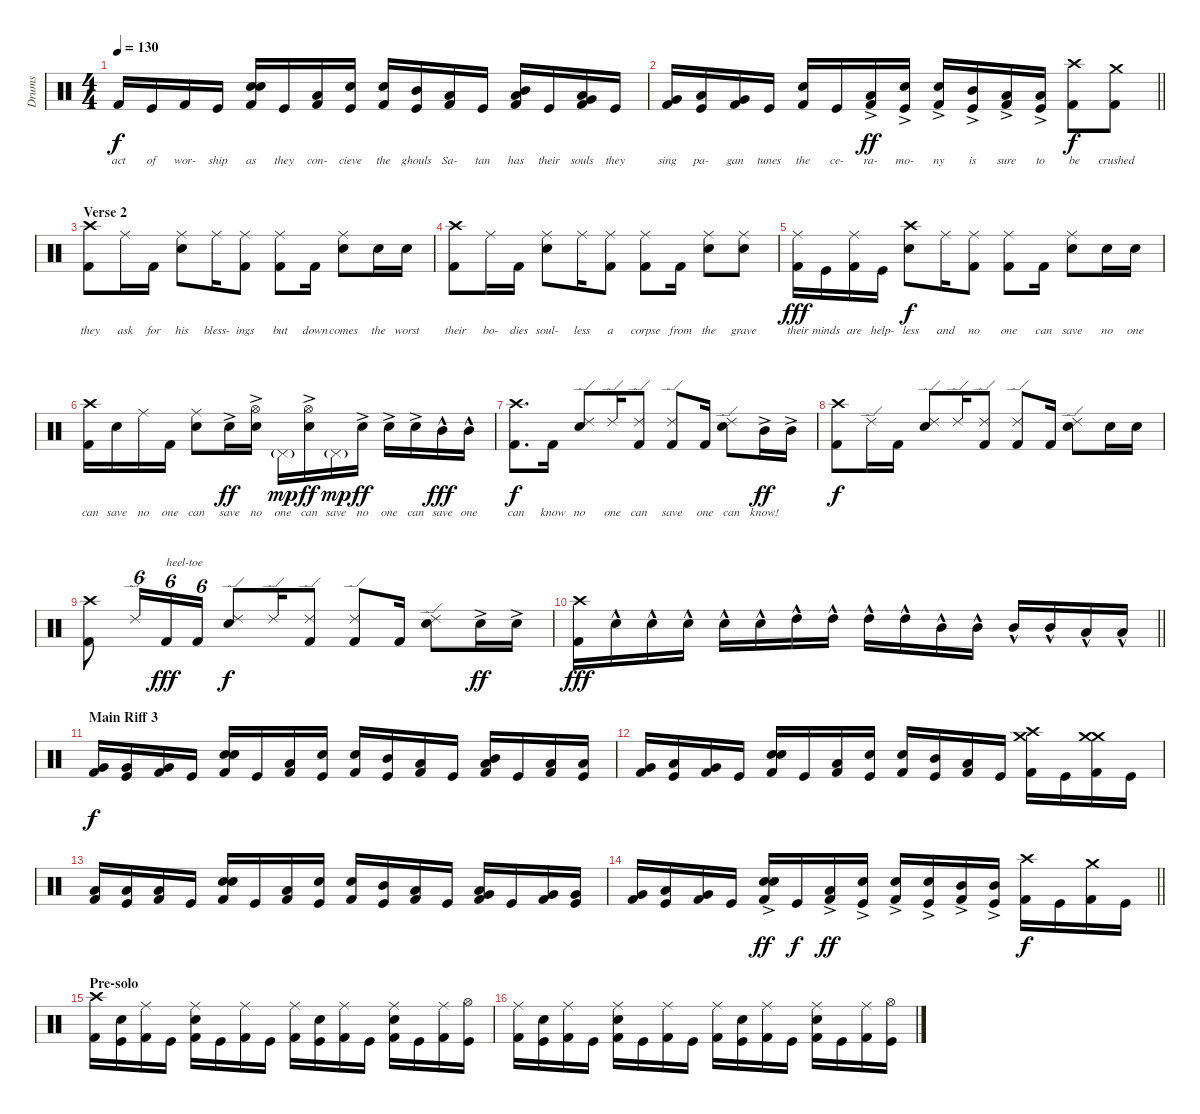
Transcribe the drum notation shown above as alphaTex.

\track ("Drums" "Drums") {instrument percussion}
\staff {score}
\articulation defaults
\ts (4 4)
\tempo 130
\clef neutral
\ks c "Kick (hit) 2".16{lyrics (0 "act") lyrics (1 "") lyrics (2 "") lyrics (3 "") lyrics (4 "") dy f} "Kick (hit)".16{lyrics (0 "of") lyrics (1 "") lyrics (2 "") lyrics (3 "") lyrics (4 "")} "Kick (hit) 2".16{lyrics (0 "wor-") lyrics (1 "") lyrics (2 "") lyrics (3 "") lyrics (4 "")} "Kick (hit)".16{lyrics (0 "ship") lyrics (1 "") lyrics (2 "") lyrics (3 "") lyrics (4 "")}
("Snare (hit) 2" "Snare (hit) 2" "Kick (hit) 2").16{lyrics (0 "as") lyrics (1 "") lyrics (2 "") lyrics (3 "") lyrics (4 "")} "Kick (hit)".16{lyrics (0 "they") lyrics (1 "") lyrics (2 "") lyrics (3 "") lyrics (4 "")} ("Low Tom (hit)" "Kick (hit) 2").16{lyrics (0 "con-") lyrics (1 "") lyrics (2 "") lyrics (3 "") lyrics (4 "")} ("Snare (hit) 2" "Kick (hit)").16{lyrics (0 "cieve") lyrics (1 "") lyrics (2 "") lyrics (3 "") lyrics (4 "")} ("Snare (hit) 2" "Kick (hit) 2").16{lyrics (0 "the") lyrics (1 "") lyrics (2 "") lyrics (3 "") lyrics (4 "")} ("Mid Tom (hit)" "Kick (hit)").16{lyrics (0 "ghouls") lyrics (1 "") lyrics (2 "") lyrics (3 "") lyrics (4 "")} ("Low Tom (hit)" "Kick (hit) 2").16{lyrics (0 "Sa-") lyrics (1 "") lyrics (2 "") lyrics (3 "") lyrics (4 "")} "Kick (hit)".16{lyrics (0 "tan") lyrics (1 "") lyrics (2 "") lyrics (3 "") lyrics (4 "")} ("Mid Tom (hit)" "Low Tom (hit)" "Kick (hit) 2").16{lyrics (0 "has") lyrics (1 "") lyrics (2 "") lyrics (3 "") lyrics (4 "")} "Kick (hit)".16{lyrics (0 "their") lyrics (1 "") lyrics (2 "") lyrics (3 "") lyrics (4 "")} ("Low Tom (hit)" "Very Low Tom (hit)" "Kick (hit) 2").16{lyrics (0 "souls") lyrics (1 "") lyrics (2 "") lyrics (3 "") lyrics (4 "")} "Kick (hit)".16{lyrics (0 "they") lyrics (1 "") lyrics (2 "") lyrics (3 "") lyrics (4 "")} |
\barLineRight lightlight
("Very Low Tom (hit)" "Kick (hit) 2").16{lyrics (0 "sing") lyrics (1 "") lyrics (2 "") lyrics (3 "") lyrics (4 "")} ("Low Tom (hit)" "Kick (hit)").16{lyrics (0 "pa-") lyrics (1 "") lyrics (2 "") lyrics (3 "") lyrics (4 "")} ("Very Low Tom (hit)" "Kick (hit) 2").16{lyrics (0 "gan") lyrics (1 "") lyrics (2 "") lyrics (3 "") lyrics (4 "")} "Kick (hit)".16{lyrics (0 "tunes") lyrics (1 "") lyrics (2 "") lyrics (3 "") lyrics (4 "")} ("Snare (hit) 2" "Kick (hit) 2").16{lyrics (0 "the") lyrics (1 "") lyrics (2 "") lyrics (3 "") lyrics (4 "")} "Kick (hit)".16{lyrics (0 "ce-") lyrics (1 "") lyrics (2 "") lyrics (3 "") lyrics (4 "")} ("Low Tom (hit)"{ac} "Kick (hit) 2").16{lyrics (0 "ra-") lyrics (1 "") lyrics (2 "") lyrics (3 "") lyrics (4 "") dy ff} ("Snare (hit) 2"{ac} "Kick (hit)").16{lyrics (0 "mo-") lyrics (1 "") lyrics (2 "") lyrics (3 "") lyrics (4 "")} ("Snare (hit) 2"{ac} "Kick (hit) 2").16{lyrics (0 "ny") lyrics (1 "") lyrics (2 "") lyrics (3 "") lyrics (4 "")} ("Mid Tom (hit)"{ac} "Kick (hit)").16{lyrics (0 "is") lyrics (1 "") lyrics (2 "") lyrics (3 "") lyrics (4 "")} ("Low Tom (hit)"{ac} "Kick (hit) 2").16{lyrics (0 "sure") lyrics (1 "") lyrics (2 "") lyrics (3 "") lyrics (4 "")} ("Low Tom (hit)"{ac} "Kick (hit)").16{lyrics (0 "to") lyrics (1 "") lyrics (2 "") lyrics (3 "") lyrics (4 "")} ("Crash high (hit)" "Kick (hit) 2").8{lyrics (0 "be") lyrics (1 "") lyrics (2 "") lyrics (3 "") lyrics (4 "") dy f} ("Crash medium (hit)" "Kick (hit) 2").8{lyrics (0 "crushed") lyrics (1 "") lyrics (2 "") lyrics (3 "") lyrics (4 "")} |
\section ("" "Verse 2")
("Crash high (hit)" "Kick (hit) 2").8{lyrics (0 "they") lyrics (1 "") lyrics (2 "") lyrics (3 "") lyrics (4 "")} "Ride (middle)".16{lyrics (0 "ask") lyrics (1 "") lyrics (2 "") lyrics (3 "") lyrics (4 "")} "Kick (hit) 2".16{lyrics (0 "for") lyrics (1 "") lyrics (2 "") lyrics (3 "") lyrics (4 "")} ("Ride (middle)" "Snare (hit) 2").8{lyrics (0 "his") lyrics (1 "") lyrics (2 "") lyrics (3 "") lyrics (4 "")} "Ride (middle)".16{lyrics (0 "bless-") lyrics (1 "") lyrics (2 "") lyrics (3 "") lyrics (4 "")} ("Ride (middle)" "Kick (hit) 2").8{lyrics (0 "ings") lyrics (1 "") lyrics (2 "") lyrics (3 "") lyrics (4 "")} ("Ride (middle)" "Kick (hit) 2").8{lyrics (0 "but") lyrics (1 "") lyrics (2 "") lyrics (3 "") lyrics (4 "")} "Kick (hit) 2".16{lyrics (0 "down") lyrics (1 "") lyrics (2 "") lyrics (3 "") lyrics (4 "")} ("Ride (middle)" "Snare (hit) 2").8{lyrics (0 "comes") lyrics (1 "") lyrics (2 "") lyrics (3 "") lyrics (4 "")} "Snare (hit) 2".16{lyrics (0 "the") lyrics (1 "") lyrics (2 "") lyrics (3 "") lyrics (4 "")} "Snare (hit) 2".16{lyrics (0 "worst") lyrics (1 "") lyrics (2 "") lyrics (3 "") lyrics (4 "")} |
("Crash high (hit)" "Kick (hit) 2").8{lyrics (0 "their") lyrics (1 "") lyrics (2 "") lyrics (3 "") lyrics (4 "")} "Ride (middle)".16{lyrics (0 "bo-") lyrics (1 "") lyrics (2 "") lyrics (3 "") lyrics (4 "")} "Kick (hit) 2".16{lyrics (0 "dies") lyrics (1 "") lyrics (2 "") lyrics (3 "") lyrics (4 "")} ("Ride (middle)" "Snare (hit) 2").8{lyrics (0 "soul-") lyrics (1 "") lyrics (2 "") lyrics (3 "") lyrics (4 "")} "Ride (middle)".16{lyrics (0 "less") lyrics (1 "") lyrics (2 "") lyrics (3 "") lyrics (4 "")} ("Ride (middle)" "Kick (hit) 2").8{lyrics (0 "a") lyrics (1 "") lyrics (2 "") lyrics (3 "") lyrics (4 "")} ("Ride (middle)" "Kick (hit) 2").8{lyrics (0 "corpse") lyrics (1 "") lyrics (2 "") lyrics (3 "") lyrics (4 "")} "Kick (hit) 2".16{lyrics (0 "from") lyrics (1 "") lyrics (2 "") lyrics (3 "") lyrics (4 "")} ("Ride (middle)" "Snare (hit) 2").8{lyrics (0 "the") lyrics (1 "") lyrics (2 "") lyrics (3 "") lyrics (4 "")} ("Ride (middle)" "Snare (hit) 2").8{lyrics (0 "grave") lyrics (1 "") lyrics (2 "") lyrics (3 "") lyrics (4 "")} |
("Ride (middle)" "Kick (hit) 2").16{lyrics (0 "their") lyrics (1 "") lyrics (2 "") lyrics (3 "") lyrics (4 "") dy fff} "Kick (hit)".16{lyrics (0 "minds") lyrics (1 "") lyrics (2 "") lyrics (3 "") lyrics (4 "")} ("Ride (middle)" "Kick (hit) 2").16{lyrics (0 "are") lyrics (1 "") lyrics (2 "") lyrics (3 "") lyrics (4 "")} "Kick (hit)".16{lyrics (0 "help-") lyrics (1 "") lyrics (2 "") lyrics (3 "") lyrics (4 "")} ("Crash high (hit)" "Snare (hit) 2").8{lyrics (0 "less") lyrics (1 "") lyrics (2 "") lyrics (3 "") lyrics (4 "") dy f} "Ride (middle)".16{lyrics (0 "and") lyrics (1 "") lyrics (2 "") lyrics (3 "") lyrics (4 "")} ("Ride (middle)" "Kick (hit) 2").8{lyrics (0 "no") lyrics (1 "") lyrics (2 "") lyrics (3 "") lyrics (4 "")} ("Ride (middle)" "Kick (hit) 2").8{lyrics (0 "one") lyrics (1 "") lyrics (2 "") lyrics (3 "") lyrics (4 "")} "Kick (hit) 2".16{lyrics (0 "can") lyrics (1 "") lyrics (2 "") lyrics (3 "") lyrics (4 "")} ("Ride (middle)" "Snare (hit) 2").8{lyrics (0 "save") lyrics (1 "") lyrics (2 "") lyrics (3 "") lyrics (4 "")} "Snare (hit) 2".16{lyrics (0 "no") lyrics (1 "") lyrics (2 "") lyrics (3 "") lyrics (4 "")} "Snare (hit) 2".16{lyrics (0 "one") lyrics (1 "") lyrics (2 "") lyrics (3 "") lyrics (4 "")} |
("Crash high (hit)" "Kick (hit) 2").16{lyrics (0 "can") lyrics (1 "") lyrics (2 "") lyrics (3 "") lyrics (4 "")} "Snare (hit) 2".16{lyrics (0 "save") lyrics (1 "") lyrics (2 "") lyrics (3 "") lyrics (4 "")} "Ride (middle)".16{lyrics (0 "no") lyrics (1 "") lyrics (2 "") lyrics (3 "") lyrics (4 "")} "Kick (hit) 2".16{lyrics (0 "one") lyrics (1 "") lyrics (2 "") lyrics (3 "") lyrics (4 "")} ("Ride (middle)" "Snare (hit) 2").8{lyrics (0 "can") lyrics (1 "") lyrics (2 "") lyrics (3 "") lyrics (4 "")} "Snare (hit) 2"{ac}.16{lyrics (0 "save") lyrics (1 "") lyrics (2 "") lyrics (3 "") lyrics (4 "") dy ff} ("Hi-Hat (open)" "Snare (hit) 2"{ac}).16{lyrics (0 "no") lyrics (1 "") lyrics (2 "") lyrics (3 "") lyrics (4 "")} "Pedal Hi-Hat (hit)"{g}.16{lyrics (0 "one") lyrics (1 "") lyrics (2 "") lyrics (3 "") lyrics (4 "") dy mp} ("Hi-Hat (open)" "Snare (hit) 2"{ac}).16{lyrics (0 "can") lyrics (1 "") lyrics (2 "") lyrics (3 "") lyrics (4 "") dy ff} "Pedal Hi-Hat (hit)"{g}.16{lyrics (0 "save") lyrics (1 "") lyrics (2 "") lyrics (3 "") lyrics (4 "") dy mp} "Snare (hit) 2"{ac}.16{lyrics (0 "no") lyrics (1 "") lyrics (2 "") lyrics (3 "") lyrics (4 "") dy ff} "Snare (hit) 2"{ac}.16{lyrics (0 "one") lyrics (1 "") lyrics (2 "") lyrics (3 "") lyrics (4 "")} "Snare (hit) 2"{ac}.16{lyrics (0 "can") lyrics (1 "") lyrics (2 "") lyrics (3 "") lyrics (4 "")} "Mid Tom (hit)"{hac}.16{lyrics (0 "save") lyrics (1 "") lyrics (2 "") lyrics (3 "") lyrics (4 "") dy fff} "Mid Tom (hit)"{hac}.16{lyrics (0 "one") lyrics (1 "") lyrics (2 "") lyrics (3 "") lyrics (4 "")} |
("Crash high (hit)" "Kick (hit) 2").8{d lyrics (0 "can") lyrics (1 "") lyrics (2 "") lyrics (3 "") lyrics (4 "") dy f} "Kick (hit) 2".16{lyrics (0 "know") lyrics (1 "") lyrics (2 "") lyrics (3 "") lyrics (4 "")} ("Ride (edge) 2" "Snare (hit) 2").8{lyrics (0 "no") lyrics (1 "") lyrics (2 "") lyrics (3 "") lyrics (4 "")} "Ride (edge) 2".16{lyrics (0 "one") lyrics (1 "") lyrics (2 "") lyrics (3 "") lyrics (4 "")} ("Ride (edge) 2" "Kick (hit) 2").8{lyrics (0 "can") lyrics (1 "") lyrics (2 "") lyrics (3 "") lyrics (4 "")} ("Ride (edge) 2" "Kick (hit) 2").8{lyrics (0 "save") lyrics (1 "") lyrics (2 "") lyrics (3 "") lyrics (4 "")} "Kick (hit) 2".16{lyrics (0 "one") lyrics (1 "") lyrics (2 "") lyrics (3 "") lyrics (4 "")} ("Ride (edge) 2" "Snare (hit) 2").8{lyrics (0 "can") lyrics (1 "") lyrics (2 "") lyrics (3 "") lyrics (4 "")} "Mid Tom (hit)"{ac}.16{lyrics (0 "know!") lyrics (1 "") lyrics (2 "") lyrics (3 "") lyrics (4 "") dy ff} "Mid Tom (hit)"{ac}.16 |
("Crash high (hit)" "Kick (hit) 2").8{dy f} "Ride (edge) 2".16 "Kick (hit) 2".16 ("Ride (edge) 2" "Snare (hit) 2").8 "Ride (edge) 2".16 ("Ride (edge) 2" "Kick (hit) 2").8 ("Ride (edge) 2" "Kick (hit) 2").8 "Kick (hit) 2".16 ("Ride (edge) 2" "Snare (hit) 2").8 "Snare (hit) 2".16 "Snare (hit) 2".16 |
("Crash high (hit)" "Kick (hit) 2").8 "Ride (edge) 2".16{tu (6 4)} "Kick (hit) 2".16{tu (6 4) txt "heel-toe" dy fff} "Kick (hit) 2".16{tu (6 4)} ("Ride (edge) 2" "Snare (hit) 2").8{dy f} "Ride (edge) 2".16 ("Ride (edge) 2" "Kick (hit) 2").8 ("Ride (edge) 2" "Kick (hit) 2").8 "Kick (hit) 2".16 ("Ride (edge) 2" "Snare (hit) 2").8 "Snare (hit) 2"{ac}.16{dy ff} "Snare (hit) 2"{ac}.16 |
\barLineRight lightlight
("Crash high (hit)" "Kick (hit) 2").16{dy fff} "Snare (hit) 2"{hac}.16 "Snare (hit) 2"{hac}.16 "Snare (hit) 2"{hac}.16 "Snare (hit) 2"{hac}.16 "Snare (hit) 2"{hac}.16 "High Tom (hit)"{hac}.16 "High Tom (hit)"{hac}.16 "High Tom (hit)"{hac}.16 "High Tom (hit)"{hac}.16 "Mid Tom (hit)"{hac}.16 "Mid Tom (hit)"{hac}.16 "Mid Tom (hit)"{hac}.16 "Mid Tom (hit)"{hac}.16 "Low Tom (hit)"{hac}.16 "Low Tom (hit)"{hac}.16 |
\section ("" "Main Riff 3")
("Very Low Tom (hit)" "Kick (hit) 2").16{dy f} ("Very Low Tom (hit)" "Kick (hit)").16 ("Very Low Tom (hit)" "Kick (hit) 2").16 "Kick (hit)".16 ("Snare (hit) 2" "Snare (hit) 2" "Kick (hit) 2").16 "Kick (hit)".16 ("Low Tom (hit)" "Kick (hit) 2").16 ("Snare (hit) 2" "Kick (hit)").16 ("Snare (hit) 2" "Kick (hit) 2").16 ("Mid Tom (hit)" "Kick (hit)").16 ("Low Tom (hit)" "Kick (hit) 2").16 "Kick (hit)".16 ("Mid Tom (hit)" "Low Tom (hit)" "Kick (hit) 2").16 "Kick (hit)".16 ("Low Tom (hit)" "Kick (hit) 2").16 ("Low Tom (hit)" "Kick (hit)").16 |
("Very Low Tom (hit)" "Kick (hit) 2").16 ("Low Tom (hit)" "Kick (hit)").16 ("Very Low Tom (hit)" "Kick (hit) 2").16 "Kick (hit)".16 ("Snare (hit) 2" "Snare (hit) 2" "Kick (hit) 2").16 "Kick (hit)".16 ("Low Tom (hit)" "Kick (hit) 2").16 ("Snare (hit) 2" "Kick (hit)").16 ("Snare (hit) 2" "Kick (hit) 2").16 ("Mid Tom (hit)" "Kick (hit)").16 ("Low Tom (hit)" "Kick (hit) 2").16 "Kick (hit)".16 ("Crash medium (hit)" "Crash high (hit)" "Kick (hit) 2").16 "Kick (hit)".16 ("Crash medium (hit)" "Crash medium (hit)" "Kick (hit) 2").16 "Kick (hit)".16 |
("Low Tom (hit)" "Kick (hit) 2").16 ("Low Tom (hit)" "Kick (hit)").16 ("Low Tom (hit)" "Kick (hit) 2").16 "Kick (hit)".16 ("Snare (hit) 2" "Snare (hit) 2" "Kick (hit) 2").16 "Kick (hit)".16 ("Low Tom (hit)" "Kick (hit) 2").16 ("Snare (hit) 2" "Kick (hit)").16 ("Snare (hit) 2" "Kick (hit) 2").16 ("Mid Tom (hit)" "Kick (hit)").16 ("Low Tom (hit)" "Kick (hit) 2").16 "Kick (hit)".16 ("Low Tom (hit)" "Very Low Tom (hit)" "Kick (hit) 2").16 "Kick (hit)".16 ("Very Low Tom (hit)" "Kick (hit) 2").16 ("Very Low Tom (hit)" "Kick (hit)").16 |
\barLineRight lightlight
("Very Low Tom (hit)" "Kick (hit) 2").16 ("Low Tom (hit)" "Kick (hit)").16 ("Very Low Tom (hit)" "Kick (hit) 2").16 "Kick (hit)".16 ("Snare (hit) 2"{ac} "Snare (hit) 2"{ac} "Kick (hit) 2").16{dy ff} "Kick (hit)".16{dy f} ("Low Tom (hit)"{ac} "Kick (hit) 2").16{dy ff} ("Snare (hit) 2"{ac} "Kick (hit)").16 ("Snare (hit) 2"{ac} "Kick (hit) 2").16 ("Snare (hit) 2"{ac} "Kick (hit)").16 ("Mid Tom (hit)"{ac} "Kick (hit) 2").16 ("Mid Tom (hit)"{ac} "Kick (hit)").16 ("Crash high (hit)" "Kick (hit) 2").16{dy f} "Kick (hit)".16 ("Crash medium (hit)" "Kick (hit) 2").16 "Kick (hit)".16 |
\section ("" "Pre-solo")
("Crash high (hit)" "Kick (hit) 2").16 ("Snare (hit) 2" "Kick (hit)").16 ("Ride (middle)" "Kick (hit) 2").16 "Kick (hit)".16 ("Ride (middle)" "Snare (hit) 2" "Kick (hit) 2").16 "Kick (hit)".16 ("Ride (middle)" "Kick (hit) 2").16 "Kick (hit)".16 ("Ride (middle)" "Kick (hit) 2").16 ("Snare (hit) 2" "Kick (hit)").16 ("Ride (middle)" "Kick (hit) 2").16 "Kick (hit)".16 ("Ride (middle)" "Snare (hit) 2" "Kick (hit) 2").16 "Kick (hit)".16 ("Ride (middle)" "Kick (hit) 2").16 ("Hi-Hat (open)" "Kick (hit)").16 |
("Ride (middle)" "Kick (hit) 2").16 ("Snare (hit) 2" "Kick (hit)").16 ("Ride (middle)" "Kick (hit) 2").16 "Kick (hit)".16 ("Ride (middle)" "Snare (hit) 2" "Kick (hit) 2").16 "Kick (hit)".16 ("Ride (middle)" "Kick (hit) 2").16 "Kick (hit)".16 ("Ride (middle)" "Kick (hit) 2").16 ("Snare (hit) 2" "Kick (hit)").16 ("Ride (middle)" "Kick (hit) 2").16 "Kick (hit)".16 ("Ride (middle)" "Snare (hit) 2" "Kick (hit) 2").16 "Kick (hit)".16 ("Ride (middle)" "Kick (hit) 2").16 ("Hi-Hat (open)" "Kick (hit)").16
